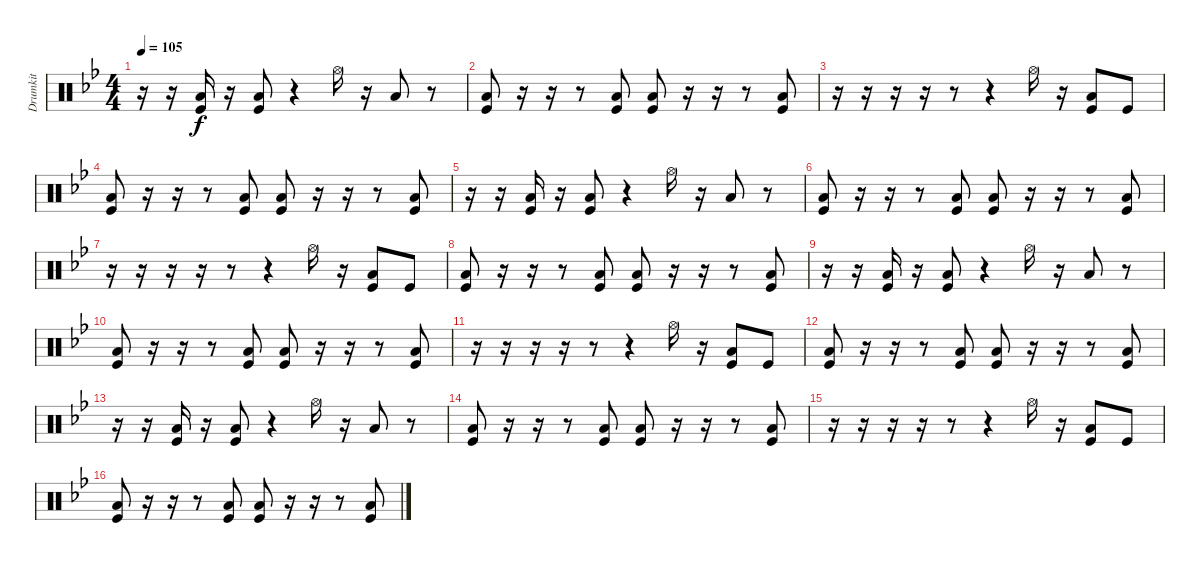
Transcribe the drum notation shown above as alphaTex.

\track ("Drumkit" "Drumkit") {instrument percussion}
\staff {score}
\articulation defaults
\ts (4 4)
\tempo 105
\clef neutral
\ks gminor
r.16{dy f} r.16 ("Kick (hit)" "Low Floor Tom (hit)").16 r.16 ("Kick (hit)" "Low Floor Tom (hit)").8 r.4 "Hi-Hat (open)".16 r.16 "Low Floor Tom (hit)".8 r.8 |
("Kick (hit)" "Low Floor Tom (hit)").8 r.16 r.16 r.8 ("Kick (hit)" "Low Floor Tom (hit)").8 ("Kick (hit)" "Low Floor Tom (hit)").8 r.16 r.16 r.8 ("Kick (hit)" "Low Floor Tom (hit)").8 |
r.16 r.16 r.16 r.16 r.8 r.4 "Hi-Hat (open)".16 r.16 ("Kick (hit)" "Low Floor Tom (hit)").8 "Kick (hit)".8 |
("Kick (hit)" "Low Floor Tom (hit)").8 r.16 r.16 r.8 ("Kick (hit)" "Low Floor Tom (hit)").8 ("Kick (hit)" "Low Floor Tom (hit)").8 r.16 r.16 r.8 ("Kick (hit)" "Low Floor Tom (hit)").8 |
r.16 r.16 ("Kick (hit)" "Low Floor Tom (hit)").16 r.16 ("Kick (hit)" "Low Floor Tom (hit)").8 r.4 "Hi-Hat (open)".16 r.16 "Low Floor Tom (hit)".8 r.8 |
("Kick (hit)" "Low Floor Tom (hit)").8 r.16 r.16 r.8 ("Kick (hit)" "Low Floor Tom (hit)").8 ("Kick (hit)" "Low Floor Tom (hit)").8 r.16 r.16 r.8 ("Kick (hit)" "Low Floor Tom (hit)").8 |
r.16 r.16 r.16 r.16 r.8 r.4 "Hi-Hat (open)".16 r.16 ("Kick (hit)" "Low Floor Tom (hit)").8 "Kick (hit)".8 |
("Kick (hit)" "Low Floor Tom (hit)").8 r.16 r.16 r.8 ("Kick (hit)" "Low Floor Tom (hit)").8 ("Kick (hit)" "Low Floor Tom (hit)").8 r.16 r.16 r.8 ("Kick (hit)" "Low Floor Tom (hit)").8 |
r.16 r.16 ("Kick (hit)" "Low Floor Tom (hit)").16 r.16 ("Kick (hit)" "Low Floor Tom (hit)").8 r.4 "Hi-Hat (open)".16 r.16 "Low Floor Tom (hit)".8 r.8 |
("Kick (hit)" "Low Floor Tom (hit)").8 r.16 r.16 r.8 ("Kick (hit)" "Low Floor Tom (hit)").8 ("Kick (hit)" "Low Floor Tom (hit)").8 r.16 r.16 r.8 ("Kick (hit)" "Low Floor Tom (hit)").8 |
r.16 r.16 r.16 r.16 r.8 r.4 "Hi-Hat (open)".16 r.16 ("Kick (hit)" "Low Floor Tom (hit)").8 "Kick (hit)".8 |
("Kick (hit)" "Low Floor Tom (hit)").8 r.16 r.16 r.8 ("Kick (hit)" "Low Floor Tom (hit)").8 ("Kick (hit)" "Low Floor Tom (hit)").8 r.16 r.16 r.8 ("Kick (hit)" "Low Floor Tom (hit)").8 |
r.16 r.16 ("Kick (hit)" "Low Floor Tom (hit)").16 r.16 ("Kick (hit)" "Low Floor Tom (hit)").8 r.4 "Hi-Hat (open)".16 r.16 "Low Floor Tom (hit)".8 r.8 |
("Kick (hit)" "Low Floor Tom (hit)").8 r.16 r.16 r.8 ("Kick (hit)" "Low Floor Tom (hit)").8 ("Kick (hit)" "Low Floor Tom (hit)").8 r.16 r.16 r.8 ("Kick (hit)" "Low Floor Tom (hit)").8 |
r.16 r.16 r.16 r.16 r.8 r.4 "Hi-Hat (open)".16 r.16 ("Kick (hit)" "Low Floor Tom (hit)").8 "Kick (hit)".8 |
("Kick (hit)" "Low Floor Tom (hit)").8 r.16 r.16 r.8 ("Kick (hit)" "Low Floor Tom (hit)").8 ("Kick (hit)" "Low Floor Tom (hit)").8 r.16 r.16 r.8 ("Kick (hit)" "Low Floor Tom (hit)").8
